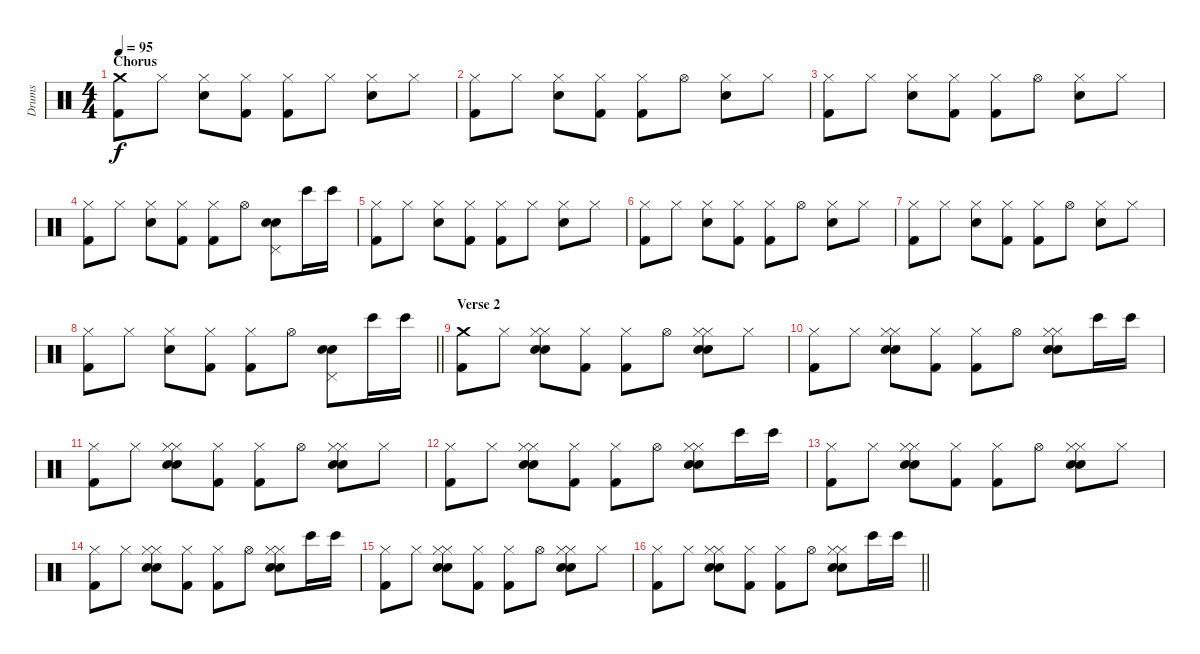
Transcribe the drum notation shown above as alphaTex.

\track ("Drums" "Drums") {instrument percussion}
\staff {score}
\articulation defaults
\ts (4 4)
\section ("" "Chorus")
\tempo 95
\clef neutral
\ks c
("Crash medium (hit)" "Kick (hit) 2").8{dy f} "Hi-Hat (closed)".8 ("Hi-Hat (closed)" "Electric Snare (hit)").8 ("Hi-Hat (closed)" "Kick (hit) 2").8 ("Hi-Hat (closed)" "Kick (hit) 2").8 "Hi-Hat (closed)".8 ("Hi-Hat (closed)" "Electric Snare (hit)").8 "Hi-Hat (closed)".8 |
("Hi-Hat (closed)" "Kick (hit) 2").8 "Hi-Hat (closed)".8 ("Hi-Hat (closed)" "Electric Snare (hit)").8 ("Hi-Hat (closed)" "Kick (hit) 2").8 ("Hi-Hat (closed)" "Kick (hit) 2").8 "Hi-Hat (open)".8 ("Hi-Hat (closed)" "Electric Snare (hit)").8 "Hi-Hat (closed)".8 |
("Hi-Hat (closed)" "Kick (hit) 2").8 "Hi-Hat (closed)".8 ("Hi-Hat (closed)" "Electric Snare (hit)").8 ("Hi-Hat (closed)" "Kick (hit) 2").8 ("Hi-Hat (closed)" "Kick (hit) 2").8 "Hi-Hat (open)".8 ("Hi-Hat (closed)" "Electric Snare (hit)").8 "Hi-Hat (closed)".8 |
("Hi-Hat (closed)" "Kick (hit) 2").8 "Hi-Hat (closed)".8 ("Hi-Hat (closed)" "Electric Snare (hit)").8 ("Hi-Hat (closed)" "Kick (hit) 2").8 ("Hi-Hat (closed)" "Kick (hit) 2").8 "Hi-Hat (open)".8 ("Pedal Hi-Hat (hit)" "Hand Clap (hit)" "Electric Snare (hit)").8 "Bongo High (hit)".16 "Bongo High (hit)".16 |
("Hi-Hat (closed)" "Kick (hit) 2").8 "Hi-Hat (closed)".8 ("Hi-Hat (closed)" "Electric Snare (hit)").8 ("Hi-Hat (closed)" "Kick (hit) 2").8 ("Hi-Hat (closed)" "Kick (hit) 2").8 "Hi-Hat (closed)".8 ("Hi-Hat (closed)" "Electric Snare (hit)").8 "Hi-Hat (closed)".8 |
("Hi-Hat (closed)" "Kick (hit) 2").8 "Hi-Hat (closed)".8 ("Hi-Hat (closed)" "Electric Snare (hit)").8 ("Hi-Hat (closed)" "Kick (hit) 2").8 ("Hi-Hat (closed)" "Kick (hit) 2").8 "Hi-Hat (open)".8 ("Hi-Hat (closed)" "Electric Snare (hit)").8 "Hi-Hat (closed)".8 |
("Hi-Hat (closed)" "Kick (hit) 2").8 "Hi-Hat (closed)".8 ("Hi-Hat (closed)" "Electric Snare (hit)").8 ("Hi-Hat (closed)" "Kick (hit) 2").8 ("Hi-Hat (closed)" "Kick (hit) 2").8 "Hi-Hat (open)".8 ("Hi-Hat (closed)" "Electric Snare (hit)").8 "Hi-Hat (closed)".8 |
\barLineRight lightlight
("Hi-Hat (closed)" "Kick (hit) 2").8 "Hi-Hat (closed)".8 ("Hi-Hat (closed)" "Electric Snare (hit)").8 ("Hi-Hat (closed)" "Kick (hit) 2").8 ("Hi-Hat (closed)" "Kick (hit) 2").8 "Hi-Hat (open)".8 ("Pedal Hi-Hat (hit)" "Hand Clap (hit)" "Electric Snare (hit)").8 "Bongo High (hit)".16 "Bongo High (hit)".16 |
\section ("" "Verse 2")
("Crash medium (hit)" "Kick (hit) 2").8 "Hi-Hat (closed)".8 ("Hi-Hat (closed)" "Hand Clap (hit)" "Hi-Hat (closed)" "Electric Snare (hit)").8 ("Hi-Hat (closed)" "Kick (hit) 2").8 ("Hi-Hat (closed)" "Kick (hit) 2").8 "Hi-Hat (open)".8 ("Hi-Hat (closed)" "Hand Clap (hit)" "Hi-Hat (closed)" "Electric Snare (hit)").8 "Hi-Hat (closed)".8 |
("Hi-Hat (closed)" "Kick (hit) 2").8 "Hi-Hat (closed)".8 ("Hi-Hat (closed)" "Hand Clap (hit)" "Hi-Hat (closed)" "Electric Snare (hit)").8 ("Hi-Hat (closed)" "Kick (hit) 2").8 ("Hi-Hat (closed)" "Kick (hit) 2").8 "Hi-Hat (open)".8 ("Hi-Hat (closed)" "Hand Clap (hit)" "Hi-Hat (closed)" "Electric Snare (hit)").8 "Bongo High (hit)".16 "Bongo High (hit)".16 |
("Hi-Hat (closed)" "Kick (hit) 2").8 "Hi-Hat (closed)".8 ("Hi-Hat (closed)" "Hand Clap (hit)" "Hi-Hat (closed)" "Electric Snare (hit)").8 ("Hi-Hat (closed)" "Kick (hit) 2").8 ("Hi-Hat (closed)" "Kick (hit) 2").8 "Hi-Hat (open)".8 ("Hi-Hat (closed)" "Hand Clap (hit)" "Hi-Hat (closed)" "Electric Snare (hit)").8 "Hi-Hat (closed)".8 |
("Hi-Hat (closed)" "Kick (hit) 2").8 "Hi-Hat (closed)".8 ("Hi-Hat (closed)" "Hand Clap (hit)" "Hi-Hat (closed)" "Electric Snare (hit)").8 ("Hi-Hat (closed)" "Kick (hit) 2").8 ("Hi-Hat (closed)" "Kick (hit) 2").8 "Hi-Hat (open)".8 ("Hi-Hat (closed)" "Hand Clap (hit)" "Hi-Hat (closed)" "Electric Snare (hit)").8 "Bongo High (hit)".16 "Bongo High (hit)".16 |
("Hi-Hat (closed)" "Kick (hit) 2").8 "Hi-Hat (closed)".8 ("Hi-Hat (closed)" "Hand Clap (hit)" "Hi-Hat (closed)" "Electric Snare (hit)").8 ("Hi-Hat (closed)" "Kick (hit) 2").8 ("Hi-Hat (closed)" "Kick (hit) 2").8 "Hi-Hat (open)".8 ("Hi-Hat (closed)" "Hand Clap (hit)" "Hi-Hat (closed)" "Electric Snare (hit)").8 "Hi-Hat (closed)".8 |
("Hi-Hat (closed)" "Kick (hit) 2").8 "Hi-Hat (closed)".8 ("Hi-Hat (closed)" "Hand Clap (hit)" "Hi-Hat (closed)" "Electric Snare (hit)").8 ("Hi-Hat (closed)" "Kick (hit) 2").8 ("Hi-Hat (closed)" "Kick (hit) 2").8 "Hi-Hat (open)".8 ("Hi-Hat (closed)" "Hand Clap (hit)" "Hi-Hat (closed)" "Electric Snare (hit)").8 "Bongo High (hit)".16 "Bongo High (hit)".16 |
("Hi-Hat (closed)" "Kick (hit) 2").8 "Hi-Hat (closed)".8 ("Hi-Hat (closed)" "Hand Clap (hit)" "Hi-Hat (closed)" "Electric Snare (hit)").8 ("Hi-Hat (closed)" "Kick (hit) 2").8 ("Hi-Hat (closed)" "Kick (hit) 2").8 "Hi-Hat (open)".8 ("Hi-Hat (closed)" "Hand Clap (hit)" "Hi-Hat (closed)" "Electric Snare (hit)").8 "Hi-Hat (closed)".8 |
\barLineRight lightlight
("Hi-Hat (closed)" "Kick (hit) 2").8 "Hi-Hat (closed)".8 ("Hi-Hat (closed)" "Hand Clap (hit)" "Hi-Hat (closed)" "Electric Snare (hit)").8 ("Hi-Hat (closed)" "Kick (hit) 2").8 ("Hi-Hat (closed)" "Kick (hit) 2").8 "Hi-Hat (open)".8 ("Hi-Hat (closed)" "Hand Clap (hit)" "Hi-Hat (closed)" "Electric Snare (hit)").8 "Bongo High (hit)".16 "Bongo High (hit)".16
